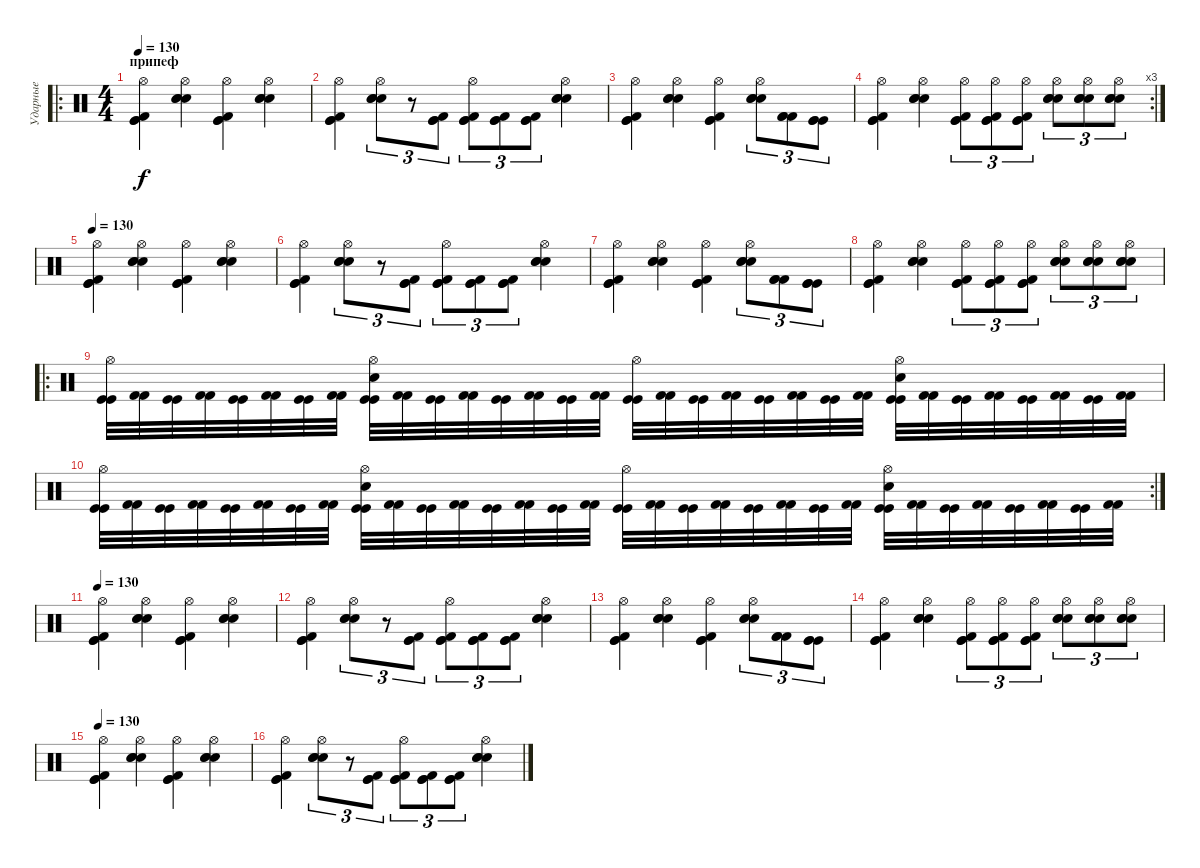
\track ("Ударные" "Ударные") {instrument percussion}
\staff {score}
\articulation defaults
\ro
\ts (4 4)
\section ("" "припеф")
\tempo 130
\clef neutral
\ks c
("Hi-Hat (open)" "Kick (hit) 2" "Kick (hit)" "Kick (hit)").4{dy f} ("Hi-Hat (open)" "Electric Snare (hit)" "Electric Snare (hit)" "Electric Snare (hit)").4 ("Hi-Hat (open)" "Kick (hit) 2" "Kick (hit)" "Kick (hit)").4 ("Hi-Hat (open)" "Electric Snare (hit)" "Electric Snare (hit)" "Electric Snare (hit)").4 |
("Hi-Hat (open)" "Kick (hit) 2" "Kick (hit)" "Kick (hit)").4 ("Hi-Hat (open)" "Electric Snare (hit)" "Electric Snare (hit)" "Electric Snare (hit)").8{tu (3 2)} r.8{tu (3 2)} ("Kick (hit) 2" "Kick (hit)" "Kick (hit)").8{tu (3 2)} ("Hi-Hat (open)" "Kick (hit) 2" "Kick (hit)" "Kick (hit)").8{tu (3 2)} ("Kick (hit) 2" "Kick (hit)" "Kick (hit)").8{tu (3 2)} ("Kick (hit) 2" "Kick (hit)" "Kick (hit)").8{tu (3 2)} ("Hi-Hat (open)" "Electric Snare (hit)" "Electric Snare (hit)" "Electric Snare (hit)").4 |
("Hi-Hat (open)" "Kick (hit) 2" "Kick (hit)" "Kick (hit)").4 ("Hi-Hat (open)" "Electric Snare (hit)" "Electric Snare (hit)" "Electric Snare (hit)").4 ("Hi-Hat (open)" "Kick (hit) 2" "Kick (hit)" "Kick (hit)").4 ("Hi-Hat (open)" "Electric Snare (hit)" "Electric Snare (hit)" "Electric Snare (hit)").8{tu (3 2)} ("Kick (hit) 2" "Kick (hit) 2" "Kick (hit) 2").8{tu (3 2)} ("Kick (hit)" "Kick (hit)" "Kick (hit)").8{tu (3 2)} |
\rc 3
("Hi-Hat (open)" "Kick (hit) 2" "Kick (hit)" "Kick (hit)").4 ("Hi-Hat (open)" "Electric Snare (hit)" "Electric Snare (hit)" "Electric Snare (hit)").4 ("Hi-Hat (open)" "Kick (hit) 2" "Kick (hit)" "Kick (hit)").8{tu (3 2)} ("Hi-Hat (open)" "Kick (hit) 2" "Kick (hit)" "Kick (hit)").8{tu (3 2)} ("Hi-Hat (open)" "Kick (hit) 2" "Kick (hit)" "Kick (hit)").8{tu (3 2)} ("Hi-Hat (open)" "Electric Snare (hit)" "Electric Snare (hit)" "Electric Snare (hit)").8{tu (3 2)} ("Hi-Hat (open)" "Electric Snare (hit)" "Electric Snare (hit)" "Electric Snare (hit)").8{tu (3 2)} ("Hi-Hat (open)" "Electric Snare (hit)" "Electric Snare (hit)" "Electric Snare (hit)").8{tu (3 2)} |
\tempo 130
("Hi-Hat (open)" "Kick (hit) 2" "Kick (hit)" "Kick (hit)").4 ("Hi-Hat (open)" "Electric Snare (hit)" "Electric Snare (hit)" "Electric Snare (hit)").4 ("Hi-Hat (open)" "Kick (hit) 2" "Kick (hit)" "Kick (hit)").4 ("Hi-Hat (open)" "Electric Snare (hit)" "Electric Snare (hit)" "Electric Snare (hit)").4 |
("Hi-Hat (open)" "Kick (hit) 2" "Kick (hit)" "Kick (hit)").4 ("Hi-Hat (open)" "Electric Snare (hit)" "Electric Snare (hit)" "Electric Snare (hit)").8{tu (3 2)} r.8{tu (3 2)} ("Kick (hit) 2" "Kick (hit)" "Kick (hit)").8{tu (3 2)} ("Hi-Hat (open)" "Kick (hit) 2" "Kick (hit)" "Kick (hit)").8{tu (3 2)} ("Kick (hit) 2" "Kick (hit)" "Kick (hit)").8{tu (3 2)} ("Kick (hit) 2" "Kick (hit)" "Kick (hit)").8{tu (3 2)} ("Hi-Hat (open)" "Electric Snare (hit)" "Electric Snare (hit)" "Electric Snare (hit)").4 |
("Hi-Hat (open)" "Kick (hit) 2" "Kick (hit)" "Kick (hit)").4 ("Hi-Hat (open)" "Electric Snare (hit)" "Electric Snare (hit)" "Electric Snare (hit)").4 ("Hi-Hat (open)" "Kick (hit) 2" "Kick (hit)" "Kick (hit)").4 ("Hi-Hat (open)" "Electric Snare (hit)" "Electric Snare (hit)" "Electric Snare (hit)").8{tu (3 2)} ("Kick (hit) 2" "Kick (hit) 2" "Kick (hit) 2").8{tu (3 2)} ("Kick (hit)" "Kick (hit)" "Kick (hit)").8{tu (3 2)} |
("Hi-Hat (open)" "Kick (hit) 2" "Kick (hit)" "Kick (hit)").4 ("Hi-Hat (open)" "Electric Snare (hit)" "Electric Snare (hit)" "Electric Snare (hit)").4 ("Hi-Hat (open)" "Kick (hit) 2" "Kick (hit)" "Kick (hit)").8{tu (3 2)} ("Hi-Hat (open)" "Kick (hit) 2" "Kick (hit)" "Kick (hit)").8{tu (3 2)} ("Hi-Hat (open)" "Kick (hit) 2" "Kick (hit)" "Kick (hit)").8{tu (3 2)} ("Hi-Hat (open)" "Electric Snare (hit)" "Electric Snare (hit)" "Electric Snare (hit)").8{tu (3 2)} ("Hi-Hat (open)" "Electric Snare (hit)" "Electric Snare (hit)" "Electric Snare (hit)").8{tu (3 2)} ("Hi-Hat (open)" "Electric Snare (hit)" "Electric Snare (hit)" "Electric Snare (hit)").8{tu (3 2)} |
\ro
("Hi-Hat (open)" "Kick (hit)" "Kick (hit)").32 ("Kick (hit) 2" "Kick (hit) 2").32 ("Kick (hit)" "Kick (hit)").32 ("Kick (hit) 2" "Kick (hit) 2").32 ("Kick (hit)" "Kick (hit)").32 ("Kick (hit) 2" "Kick (hit) 2").32 ("Kick (hit)" "Kick (hit)").32 ("Kick (hit) 2" "Kick (hit) 2").32 ("Electric Snare (hit)" "Hi-Hat (open)" "Kick (hit)" "Kick (hit)").32 ("Kick (hit) 2" "Kick (hit) 2").32 ("Kick (hit)" "Kick (hit)").32 ("Kick (hit) 2" "Kick (hit) 2").32 ("Kick (hit)" "Kick (hit)").32 ("Kick (hit) 2" "Kick (hit) 2").32 ("Kick (hit)" "Kick (hit)").32 ("Kick (hit) 2" "Kick (hit) 2").32 ("Hi-Hat (open)" "Kick (hit)" "Kick (hit)").32 ("Kick (hit) 2" "Kick (hit) 2").32 ("Kick (hit)" "Kick (hit)").32 ("Kick (hit) 2" "Kick (hit) 2").32 ("Kick (hit)" "Kick (hit)").32 ("Kick (hit) 2" "Kick (hit) 2").32 ("Kick (hit)" "Kick (hit)").32 ("Kick (hit) 2" "Kick (hit) 2").32 ("Electric Snare (hit)" "Hi-Hat (open)" "Kick (hit)" "Kick (hit)").32 ("Kick (hit) 2" "Kick (hit) 2").32 ("Kick (hit)" "Kick (hit)").32 ("Kick (hit) 2" "Kick (hit) 2").32 ("Kick (hit)" "Kick (hit)").32 ("Kick (hit) 2" "Kick (hit) 2").32 ("Kick (hit)" "Kick (hit)").32 ("Kick (hit) 2" "Kick (hit) 2").32 |
\rc 2
("Hi-Hat (open)" "Kick (hit)" "Kick (hit)").32 ("Kick (hit) 2" "Kick (hit) 2").32 ("Kick (hit)" "Kick (hit)").32 ("Kick (hit) 2" "Kick (hit) 2").32 ("Kick (hit)" "Kick (hit)").32 ("Kick (hit) 2" "Kick (hit) 2").32 ("Kick (hit)" "Kick (hit)").32 ("Kick (hit) 2" "Kick (hit) 2").32 ("Electric Snare (hit)" "Hi-Hat (open)" "Kick (hit)" "Kick (hit)").32 ("Kick (hit) 2" "Kick (hit) 2").32 ("Kick (hit)" "Kick (hit)").32 ("Kick (hit) 2" "Kick (hit) 2").32 ("Kick (hit)" "Kick (hit)").32 ("Kick (hit) 2" "Kick (hit) 2").32 ("Kick (hit)" "Kick (hit)").32 ("Kick (hit) 2" "Kick (hit) 2").32 ("Hi-Hat (open)" "Kick (hit)" "Kick (hit)").32 ("Kick (hit) 2" "Kick (hit) 2").32 ("Kick (hit)" "Kick (hit)").32 ("Kick (hit) 2" "Kick (hit) 2").32 ("Kick (hit)" "Kick (hit)").32 ("Kick (hit) 2" "Kick (hit) 2").32 ("Kick (hit)" "Kick (hit)").32 ("Kick (hit) 2" "Kick (hit) 2").32 ("Electric Snare (hit)" "Hi-Hat (open)" "Kick (hit)" "Kick (hit)").32 ("Kick (hit) 2" "Kick (hit) 2").32 ("Kick (hit)" "Kick (hit)").32 ("Kick (hit) 2" "Kick (hit) 2").32 ("Kick (hit)" "Kick (hit)").32 ("Kick (hit) 2" "Kick (hit) 2").32 ("Kick (hit)" "Kick (hit)").32 ("Kick (hit) 2" "Kick (hit) 2").32 |
\tempo 130
("Hi-Hat (open)" "Kick (hit) 2" "Kick (hit)" "Kick (hit)").4 ("Hi-Hat (open)" "Electric Snare (hit)" "Electric Snare (hit)" "Electric Snare (hit)").4 ("Hi-Hat (open)" "Kick (hit) 2" "Kick (hit)" "Kick (hit)").4 ("Hi-Hat (open)" "Electric Snare (hit)" "Electric Snare (hit)" "Electric Snare (hit)").4 |
("Hi-Hat (open)" "Kick (hit) 2" "Kick (hit)" "Kick (hit)").4 ("Hi-Hat (open)" "Electric Snare (hit)" "Electric Snare (hit)" "Electric Snare (hit)").8{tu (3 2)} r.8{tu (3 2)} ("Kick (hit) 2" "Kick (hit)" "Kick (hit)").8{tu (3 2)} ("Hi-Hat (open)" "Kick (hit) 2" "Kick (hit)" "Kick (hit)").8{tu (3 2)} ("Kick (hit) 2" "Kick (hit)" "Kick (hit)").8{tu (3 2)} ("Kick (hit) 2" "Kick (hit)" "Kick (hit)").8{tu (3 2)} ("Hi-Hat (open)" "Electric Snare (hit)" "Electric Snare (hit)" "Electric Snare (hit)").4 |
("Hi-Hat (open)" "Kick (hit) 2" "Kick (hit)" "Kick (hit)").4 ("Hi-Hat (open)" "Electric Snare (hit)" "Electric Snare (hit)" "Electric Snare (hit)").4 ("Hi-Hat (open)" "Kick (hit) 2" "Kick (hit)" "Kick (hit)").4 ("Hi-Hat (open)" "Electric Snare (hit)" "Electric Snare (hit)" "Electric Snare (hit)").8{tu (3 2)} ("Kick (hit) 2" "Kick (hit) 2" "Kick (hit) 2").8{tu (3 2)} ("Kick (hit)" "Kick (hit)" "Kick (hit)").8{tu (3 2)} |
("Hi-Hat (open)" "Kick (hit) 2" "Kick (hit)" "Kick (hit)").4 ("Hi-Hat (open)" "Electric Snare (hit)" "Electric Snare (hit)" "Electric Snare (hit)").4 ("Hi-Hat (open)" "Kick (hit) 2" "Kick (hit)" "Kick (hit)").8{tu (3 2)} ("Hi-Hat (open)" "Kick (hit) 2" "Kick (hit)" "Kick (hit)").8{tu (3 2)} ("Hi-Hat (open)" "Kick (hit) 2" "Kick (hit)" "Kick (hit)").8{tu (3 2)} ("Hi-Hat (open)" "Electric Snare (hit)" "Electric Snare (hit)" "Electric Snare (hit)").8{tu (3 2)} ("Hi-Hat (open)" "Electric Snare (hit)" "Electric Snare (hit)" "Electric Snare (hit)").8{tu (3 2)} ("Hi-Hat (open)" "Electric Snare (hit)" "Electric Snare (hit)" "Electric Snare (hit)").8{tu (3 2)} |
\tempo 130
("Hi-Hat (open)" "Kick (hit) 2" "Kick (hit)" "Kick (hit)").4 ("Hi-Hat (open)" "Electric Snare (hit)" "Electric Snare (hit)" "Electric Snare (hit)").4 ("Hi-Hat (open)" "Kick (hit) 2" "Kick (hit)" "Kick (hit)").4 ("Hi-Hat (open)" "Electric Snare (hit)" "Electric Snare (hit)" "Electric Snare (hit)").4 |
("Hi-Hat (open)" "Kick (hit) 2" "Kick (hit)" "Kick (hit)").4 ("Hi-Hat (open)" "Electric Snare (hit)" "Electric Snare (hit)" "Electric Snare (hit)").8{tu (3 2)} r.8{tu (3 2)} ("Kick (hit) 2" "Kick (hit)" "Kick (hit)").8{tu (3 2)} ("Hi-Hat (open)" "Kick (hit) 2" "Kick (hit)" "Kick (hit)").8{tu (3 2)} ("Kick (hit) 2" "Kick (hit)" "Kick (hit)").8{tu (3 2)} ("Kick (hit) 2" "Kick (hit)" "Kick (hit)").8{tu (3 2)} ("Hi-Hat (open)" "Electric Snare (hit)" "Electric Snare (hit)" "Electric Snare (hit)").4
